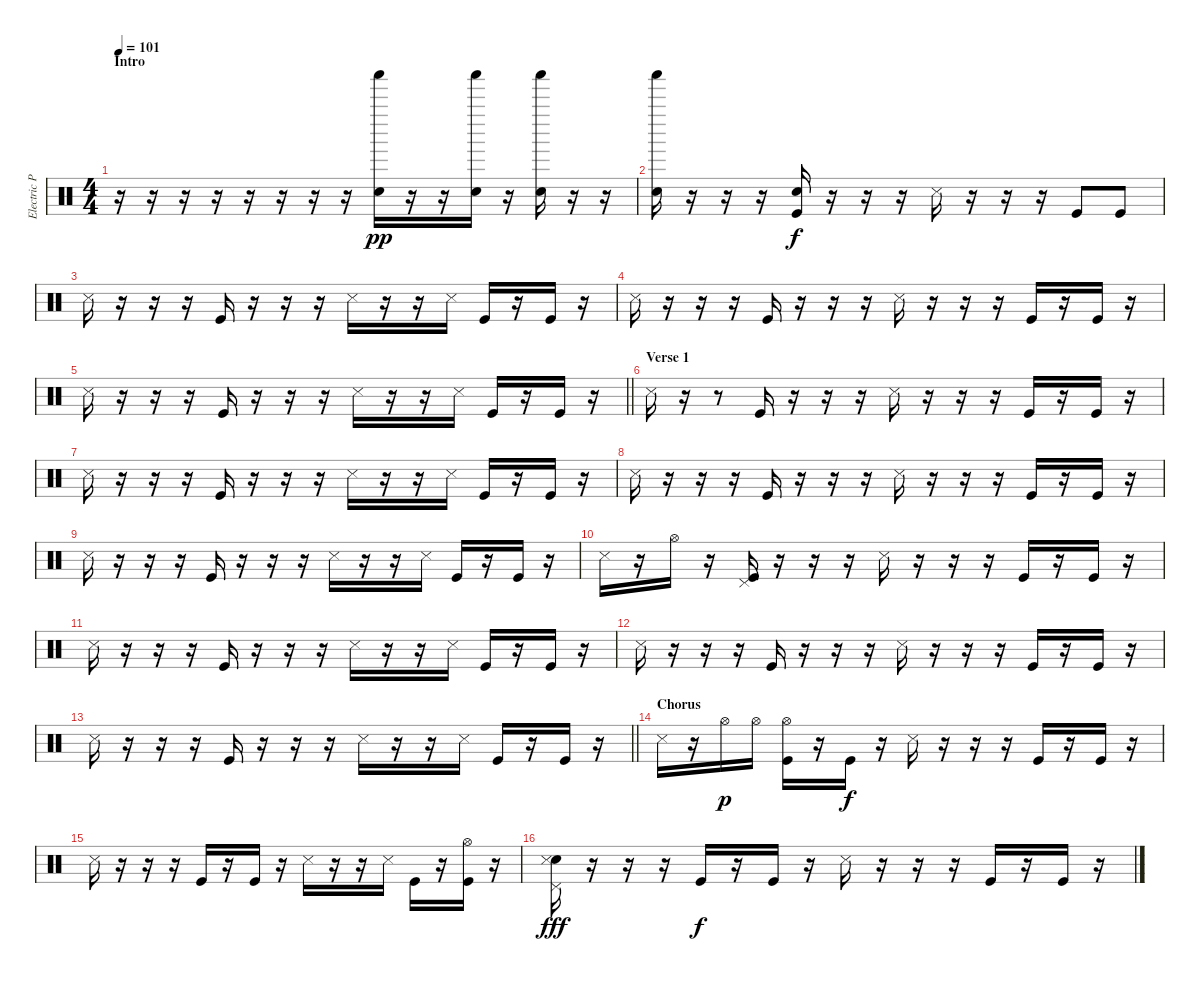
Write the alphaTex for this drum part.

\track ("Electric Percussion" "Electric P") {instrument percussion}
\staff {score}
\articulation defaults
\ts (4 4)
\section ("" "Intro")
\tempo 101
\clef neutral
\ks c
r.16{dy pp} r.16 r.16 r.16 r.16 r.16 r.16 r.16 ("Shaker (hit)" "Snare (hit) 2").16 r.16 r.16 ("Shaker (hit)" "Snare (hit) 2").16 r.16 ("Shaker (hit)" "Snare (hit) 2").16 r.16 r.16 |
("Shaker (hit)" "Snare (hit) 2").16 r.16 r.16 r.16 ("Metronome (bell)" "Kick (hit)").16{dy f} r.16 r.16 r.16 "Snare (side stick) 3".16 r.16 r.16 r.16 "Kick (hit)".8 "Kick (hit)".8 |
"Snare (side stick) 3".16 r.16 r.16 r.16 "Kick (hit)".16 r.16 r.16 r.16 "Snare (side stick) 3".16 r.16 r.16 "Snare (side stick) 3".16 "Kick (hit)".16 r.16 "Kick (hit)".16 r.16 |
"Snare (side stick) 3".16 r.16 r.16 r.16 "Kick (hit)".16 r.16 r.16 r.16 "Snare (side stick) 3".16 r.16 r.16 r.16 "Kick (hit)".16 r.16 "Kick (hit)".16 r.16 |
\barLineRight lightlight "Snare (side stick) 3".16
r.16 r.16 r.16 "Kick (hit)".16 r.16 r.16 r.16 "Snare (side stick) 3".16 r.16 r.16 "Snare (side stick) 3".16 "Kick (hit)".16 r.16 "Kick (hit)".16 r.16 |
\section ("" "Verse 1")
"Snare (side stick) 3".16 r.16 r.8 "Kick (hit)".16 r.16 r.16 r.16 "Snare (side stick) 3".16 r.16 r.16 r.16 "Kick (hit)".16 r.16 "Kick (hit)".16 r.16 |
"Snare (side stick) 3".16 r.16 r.16 r.16 "Kick (hit)".16 r.16 r.16 r.16 "Snare (side stick) 3".16 r.16 r.16 "Snare (side stick) 3".16 "Kick (hit)".16 r.16 "Kick (hit)".16 r.16 |
"Snare (side stick) 3".16 r.16 r.16 r.16 "Kick (hit)".16 r.16 r.16 r.16 "Snare (side stick) 3".16 r.16 r.16 r.16 "Kick (hit)".16 r.16 "Kick (hit)".16 r.16 |
"Snare (side stick) 3".16 r.16 r.16 r.16 "Kick (hit)".16 r.16 r.16 r.16 "Snare (side stick) 3".16 r.16 r.16 "Snare (side stick) 3".16 "Kick (hit)".16 r.16 "Kick (hit)".16 r.16 |
"Snare (side stick) 3".16 r.16 "Hi-Hat (open)".16 r.16 ("Pedal Hi-Hat (hit)" "Kick (hit)").16 r.16 r.16 r.16 "Snare (side stick) 3".16 r.16 r.16 r.16 "Kick (hit)".16 r.16 "Kick (hit)".16 r.16 |
"Snare (side stick) 3".16 r.16 r.16 r.16 "Kick (hit)".16 r.16 r.16 r.16 "Snare (side stick) 3".16 r.16 r.16 "Snare (side stick) 3".16 "Kick (hit)".16 r.16 "Kick (hit)".16 r.16 |
"Snare (side stick) 3".16 r.16 r.16 r.16 "Kick (hit)".16 r.16 r.16 r.16 "Snare (side stick) 3".16 r.16 r.16 r.16 "Kick (hit)".16 r.16 "Kick (hit)".16 r.16 |
\barLineRight lightlight "Snare (side stick) 3".16
r.16 r.16 r.16 "Kick (hit)".16 r.16 r.16 r.16 "Snare (side stick) 3".16 r.16 r.16 "Snare (side stick) 3".16 "Kick (hit)".16 r.16 "Kick (hit)".16 r.16 |
\section ("" "Chorus")
"Snare (side stick) 3".16 r.16 "Hi-Hat (open)".16{dy p} "Hi-Hat (open)".16 ("Hi-Hat (open)" "Kick (hit)").16 r.16 "Kick (hit)".16{dy f} r.16 "Snare (side stick) 3".16 r.16 r.16 r.16 "Kick (hit)".16 r.16 "Kick (hit)".16 r.16 |
"Snare (side stick) 3".16 r.16 r.16 r.16 "Kick (hit)".16 r.16 "Kick (hit)".16 r.16 "Snare (side stick) 3".16 r.16 r.16 "Snare (side stick) 3".16 "Kick (hit)".16 r.16 ("Hi-Hat (open)" "Kick (hit)").16 r.16 |
("Pedal Hi-Hat (hit)" "Hand Clap (hit)" "Snare (side stick) 3").16{dy fff} r.16 r.16 r.16 "Kick (hit)".16{dy f} r.16 "Kick (hit)".16 r.16 "Snare (side stick) 3".16 r.16 r.16 r.16 "Kick (hit)".16 r.16 "Kick (hit)".16 r.16
